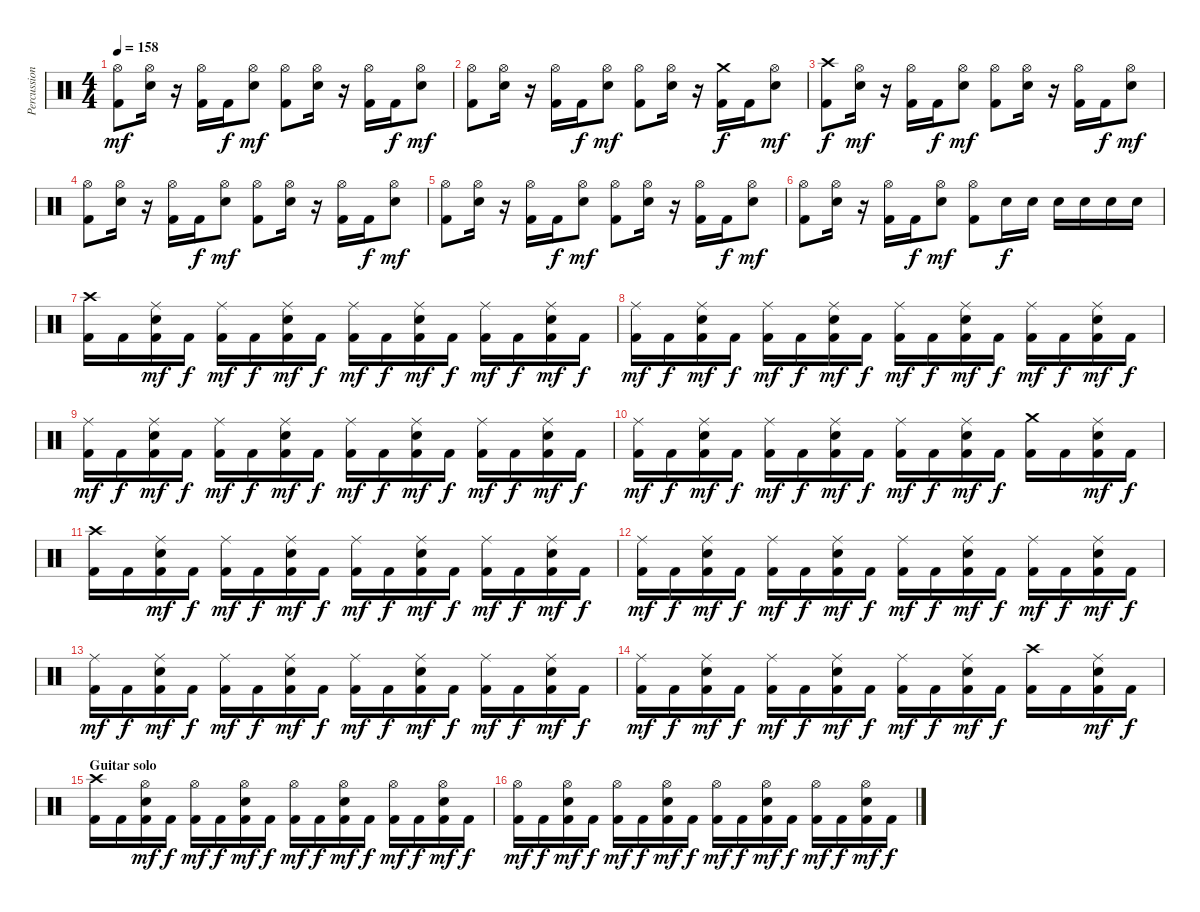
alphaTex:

\track ("Percussion" "Percussion") {instrument percussion}
\staff {score}
\articulation defaults
\ts (4 4)
\tempo 158
\clef neutral
\ks c
("Hi-Hat (open)" "Kick (hit) 2").8{dy mf} ("Hi-Hat (open)" "Electric Snare (hit)").16 r.16 ("Hi-Hat (open)" "Kick (hit) 2").16 "Kick (hit) 2".16{dy f} ("Hi-Hat (open)" "Electric Snare (hit)").8{dy mf} ("Hi-Hat (open)" "Kick (hit) 2").8 ("Hi-Hat (open)" "Electric Snare (hit)").16 r.16 ("Hi-Hat (open)" "Kick (hit) 2").16 "Kick (hit) 2".16{dy f} ("Hi-Hat (open)" "Electric Snare (hit)").8{dy mf} |
("Hi-Hat (open)" "Kick (hit) 2").8 ("Hi-Hat (open)" "Electric Snare (hit)").16 r.16 ("Hi-Hat (open)" "Kick (hit) 2").16 "Kick (hit) 2".16{dy f} ("Hi-Hat (open)" "Electric Snare (hit)").8{dy mf} ("Hi-Hat (open)" "Kick (hit) 2").8 ("Hi-Hat (open)" "Electric Snare (hit)").16 r.16 ("Crash medium (hit)" "Kick (hit) 2").16{dy f} "Kick (hit) 2".16 ("Hi-Hat (open)" "Electric Snare (hit)").8{dy mf} |
("Crash high (hit)" "Kick (hit) 2").8{dy f} ("Hi-Hat (open)" "Electric Snare (hit)").16{dy mf} r.16 ("Hi-Hat (open)" "Kick (hit) 2").16 "Kick (hit) 2".16{dy f} ("Hi-Hat (open)" "Electric Snare (hit)").8{dy mf} ("Hi-Hat (open)" "Kick (hit) 2").8 ("Hi-Hat (open)" "Electric Snare (hit)").16 r.16 ("Hi-Hat (open)" "Kick (hit) 2").16 "Kick (hit) 2".16{dy f} ("Hi-Hat (open)" "Electric Snare (hit)").8{dy mf} |
("Hi-Hat (open)" "Kick (hit) 2").8 ("Hi-Hat (open)" "Electric Snare (hit)").16 r.16 ("Hi-Hat (open)" "Kick (hit) 2").16 "Kick (hit) 2".16{dy f} ("Hi-Hat (open)" "Electric Snare (hit)").8{dy mf} ("Hi-Hat (open)" "Kick (hit) 2").8 ("Hi-Hat (open)" "Electric Snare (hit)").16 r.16 ("Hi-Hat (open)" "Kick (hit) 2").16 "Kick (hit) 2".16{dy f} ("Hi-Hat (open)" "Electric Snare (hit)").8{dy mf} |
("Hi-Hat (open)" "Kick (hit) 2").8 ("Hi-Hat (open)" "Electric Snare (hit)").16 r.16 ("Hi-Hat (open)" "Kick (hit) 2").16 "Kick (hit) 2".16{dy f} ("Hi-Hat (open)" "Electric Snare (hit)").8{dy mf} ("Hi-Hat (open)" "Kick (hit) 2").8 ("Hi-Hat (open)" "Electric Snare (hit)").16 r.16 ("Hi-Hat (open)" "Kick (hit) 2").16 "Kick (hit) 2".16{dy f} ("Hi-Hat (open)" "Electric Snare (hit)").8{dy mf} |
("Hi-Hat (open)" "Kick (hit) 2").8 ("Hi-Hat (open)" "Electric Snare (hit)").16 r.16 ("Hi-Hat (open)" "Kick (hit) 2").16 "Kick (hit) 2".16{dy f} ("Hi-Hat (open)" "Electric Snare (hit)").8{dy mf} ("Hi-Hat (open)" "Kick (hit) 2").8 "Electric Snare (hit)".16{dy f} "Electric Snare (hit)".16 "Electric Snare (hit)".16 "Electric Snare (hit)".16 "Electric Snare (hit)".16 "Electric Snare (hit)".16 |
("Crash high (hit)" "Kick (hit) 2").16 "Kick (hit) 2".16 ("Ride (middle)" "Electric Snare (hit)" "Kick (hit) 2").16{dy mf} "Kick (hit) 2".16{dy f} ("Ride (middle)" "Kick (hit) 2").16{dy mf} "Kick (hit) 2".16{dy f} ("Ride (middle)" "Electric Snare (hit)" "Kick (hit) 2").16{dy mf} "Kick (hit) 2".16{dy f} ("Ride (middle)" "Kick (hit) 2").16{dy mf} "Kick (hit) 2".16{dy f} ("Ride (middle)" "Electric Snare (hit)" "Kick (hit) 2").16{dy mf} "Kick (hit) 2".16{dy f} ("Ride (middle)" "Kick (hit) 2").16{dy mf} "Kick (hit) 2".16{dy f} ("Ride (middle)" "Electric Snare (hit)" "Kick (hit) 2").16{dy mf} "Kick (hit) 2".16{dy f} |
("Ride (middle)" "Kick (hit) 2").16{dy mf} "Kick (hit) 2".16{dy f} ("Ride (middle)" "Electric Snare (hit)" "Kick (hit) 2").16{dy mf} "Kick (hit) 2".16{dy f} ("Ride (middle)" "Kick (hit) 2").16{dy mf} "Kick (hit) 2".16{dy f} ("Ride (middle)" "Electric Snare (hit)" "Kick (hit) 2").16{dy mf} "Kick (hit) 2".16{dy f} ("Ride (middle)" "Kick (hit) 2").16{dy mf} "Kick (hit) 2".16{dy f} ("Ride (middle)" "Electric Snare (hit)" "Kick (hit) 2").16{dy mf} "Kick (hit) 2".16{dy f} ("Ride (middle)" "Kick (hit) 2").16{dy mf} "Kick (hit) 2".16{dy f} ("Ride (middle)" "Electric Snare (hit)" "Kick (hit) 2").16{dy mf} "Kick (hit) 2".16{dy f} |
("Ride (middle)" "Kick (hit) 2").16{dy mf} "Kick (hit) 2".16{dy f} ("Ride (middle)" "Electric Snare (hit)" "Kick (hit) 2").16{dy mf} "Kick (hit) 2".16{dy f} ("Ride (middle)" "Kick (hit) 2").16{dy mf} "Kick (hit) 2".16{dy f} ("Ride (middle)" "Electric Snare (hit)" "Kick (hit) 2").16{dy mf} "Kick (hit) 2".16{dy f} ("Ride (middle)" "Kick (hit) 2").16{dy mf} "Kick (hit) 2".16{dy f} ("Ride (middle)" "Electric Snare (hit)" "Kick (hit) 2").16{dy mf} "Kick (hit) 2".16{dy f} ("Ride (middle)" "Kick (hit) 2").16{dy mf} "Kick (hit) 2".16{dy f} ("Ride (middle)" "Electric Snare (hit)" "Kick (hit) 2").16{dy mf} "Kick (hit) 2".16{dy f} |
("Ride (middle)" "Kick (hit) 2").16{dy mf} "Kick (hit) 2".16{dy f} ("Ride (middle)" "Electric Snare (hit)" "Kick (hit) 2").16{dy mf} "Kick (hit) 2".16{dy f} ("Ride (middle)" "Kick (hit) 2").16{dy mf} "Kick (hit) 2".16{dy f} ("Ride (middle)" "Electric Snare (hit)" "Kick (hit) 2").16{dy mf} "Kick (hit) 2".16{dy f} ("Ride (middle)" "Kick (hit) 2").16{dy mf} "Kick (hit) 2".16{dy f} ("Ride (middle)" "Electric Snare (hit)" "Kick (hit) 2").16{dy mf} "Kick (hit) 2".16{dy f} ("Crash medium (hit)" "Kick (hit) 2").16 "Kick (hit) 2".16 ("Ride (middle)" "Electric Snare (hit)" "Kick (hit) 2").16{dy mf} "Kick (hit) 2".16{dy f} |
("Crash high (hit)" "Kick (hit) 2").16 "Kick (hit) 2".16 ("Ride (middle)" "Electric Snare (hit)" "Kick (hit) 2").16{dy mf} "Kick (hit) 2".16{dy f} ("Ride (middle)" "Kick (hit) 2").16{dy mf} "Kick (hit) 2".16{dy f} ("Ride (middle)" "Electric Snare (hit)" "Kick (hit) 2").16{dy mf} "Kick (hit) 2".16{dy f} ("Ride (middle)" "Kick (hit) 2").16{dy mf} "Kick (hit) 2".16{dy f} ("Ride (middle)" "Electric Snare (hit)" "Kick (hit) 2").16{dy mf} "Kick (hit) 2".16{dy f} ("Ride (middle)" "Kick (hit) 2").16{dy mf} "Kick (hit) 2".16{dy f} ("Ride (middle)" "Electric Snare (hit)" "Kick (hit) 2").16{dy mf} "Kick (hit) 2".16{dy f} |
("Ride (middle)" "Kick (hit) 2").16{dy mf} "Kick (hit) 2".16{dy f} ("Ride (middle)" "Electric Snare (hit)" "Kick (hit) 2").16{dy mf} "Kick (hit) 2".16{dy f} ("Ride (middle)" "Kick (hit) 2").16{dy mf} "Kick (hit) 2".16{dy f} ("Ride (middle)" "Electric Snare (hit)" "Kick (hit) 2").16{dy mf} "Kick (hit) 2".16{dy f} ("Ride (middle)" "Kick (hit) 2").16{dy mf} "Kick (hit) 2".16{dy f} ("Ride (middle)" "Electric Snare (hit)" "Kick (hit) 2").16{dy mf} "Kick (hit) 2".16{dy f} ("Ride (middle)" "Kick (hit) 2").16{dy mf} "Kick (hit) 2".16{dy f} ("Ride (middle)" "Electric Snare (hit)" "Kick (hit) 2").16{dy mf} "Kick (hit) 2".16{dy f} |
("Ride (middle)" "Kick (hit) 2").16{dy mf} "Kick (hit) 2".16{dy f} ("Ride (middle)" "Electric Snare (hit)" "Kick (hit) 2").16{dy mf} "Kick (hit) 2".16{dy f} ("Ride (middle)" "Kick (hit) 2").16{dy mf} "Kick (hit) 2".16{dy f} ("Ride (middle)" "Electric Snare (hit)" "Kick (hit) 2").16{dy mf} "Kick (hit) 2".16{dy f} ("Ride (middle)" "Kick (hit) 2").16{dy mf} "Kick (hit) 2".16{dy f} ("Ride (middle)" "Electric Snare (hit)" "Kick (hit) 2").16{dy mf} "Kick (hit) 2".16{dy f} ("Ride (middle)" "Kick (hit) 2").16{dy mf} "Kick (hit) 2".16{dy f} ("Ride (middle)" "Electric Snare (hit)" "Kick (hit) 2").16{dy mf} "Kick (hit) 2".16{dy f} |
("Ride (middle)" "Kick (hit) 2").16{dy mf} "Kick (hit) 2".16{dy f} ("Ride (middle)" "Electric Snare (hit)" "Kick (hit) 2").16{dy mf} "Kick (hit) 2".16{dy f} ("Ride (middle)" "Kick (hit) 2").16{dy mf} "Kick (hit) 2".16{dy f} ("Ride (middle)" "Electric Snare (hit)" "Kick (hit) 2").16{dy mf} "Kick (hit) 2".16{dy f} ("Ride (middle)" "Kick (hit) 2").16{dy mf} "Kick (hit) 2".16{dy f} ("Ride (middle)" "Electric Snare (hit)" "Kick (hit) 2").16{dy mf} "Kick (hit) 2".16{dy f} ("Crash high (hit)" "Kick (hit) 2").16 "Kick (hit) 2".16 ("Ride (middle)" "Electric Snare (hit)" "Kick (hit) 2").16{dy mf} "Kick (hit) 2".16{dy f} |
\section ("" "Guitar solo")
("Crash high (hit)" "Kick (hit) 2").16 "Kick (hit) 2".16 ("Hi-Hat (open)" "Electric Snare (hit)" "Kick (hit) 2").16{dy mf} "Kick (hit) 2".16{dy f} ("Hi-Hat (open)" "Kick (hit) 2").16{dy mf} "Kick (hit) 2".16{dy f} ("Hi-Hat (open)" "Electric Snare (hit)" "Kick (hit) 2").16{dy mf} "Kick (hit) 2".16{dy f} ("Hi-Hat (open)" "Kick (hit) 2").16{dy mf} "Kick (hit) 2".16{dy f} ("Hi-Hat (open)" "Electric Snare (hit)" "Kick (hit) 2").16{dy mf} "Kick (hit) 2".16{dy f} ("Hi-Hat (open)" "Kick (hit) 2").16{dy mf} "Kick (hit) 2".16{dy f} ("Hi-Hat (open)" "Electric Snare (hit)" "Kick (hit) 2").16{dy mf} "Kick (hit) 2".16{dy f} |
("Hi-Hat (open)" "Kick (hit) 2").16{dy mf} "Kick (hit) 2".16{dy f} ("Hi-Hat (open)" "Electric Snare (hit)" "Kick (hit) 2").16{dy mf} "Kick (hit) 2".16{dy f} ("Hi-Hat (open)" "Kick (hit) 2").16{dy mf} "Kick (hit) 2".16{dy f} ("Hi-Hat (open)" "Electric Snare (hit)" "Kick (hit) 2").16{dy mf} "Kick (hit) 2".16{dy f} ("Hi-Hat (open)" "Kick (hit) 2").16{dy mf} "Kick (hit) 2".16{dy f} ("Hi-Hat (open)" "Electric Snare (hit)" "Kick (hit) 2").16{dy mf} "Kick (hit) 2".16{dy f} ("Hi-Hat (open)" "Kick (hit) 2").16{dy mf} "Kick (hit) 2".16{dy f} ("Hi-Hat (open)" "Electric Snare (hit)" "Kick (hit) 2").16{dy mf} "Kick (hit) 2".16{dy f}
